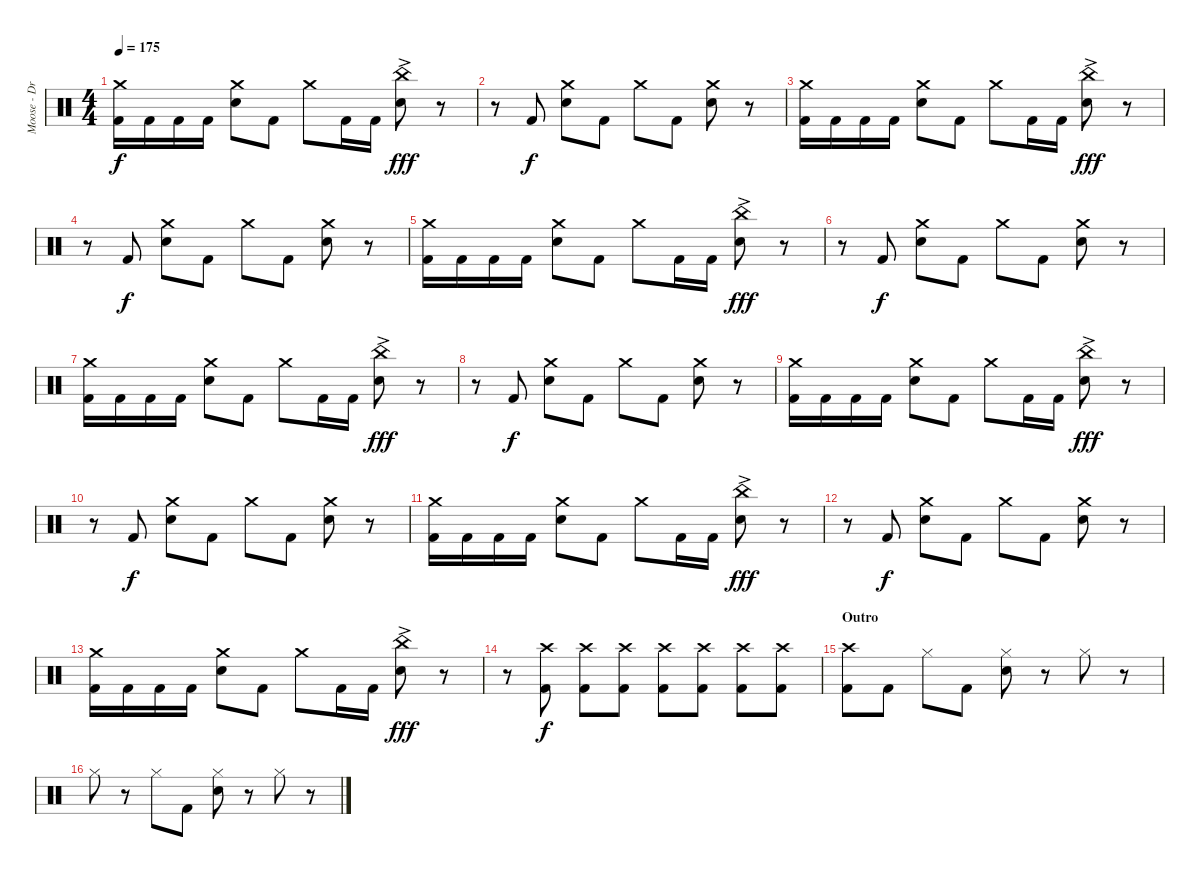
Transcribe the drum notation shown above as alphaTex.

\track ("Moose - Drums" "Moose - Dr") {instrument percussion}
\staff {score}
\articulation defaults
\ts (4 4)
\tempo 175
\clef neutral
\ks c
("Crash medium (hit)" "Kick (hit) 2").16{dy f} "Kick (hit) 2".16 "Kick (hit) 2".16 "Kick (hit) 2".16 ("Crash medium (hit)" "Electric Snare (hit)").8 "Kick (hit) 2".8 "Crash medium (hit)".8 "Kick (hit) 2".16 "Kick (hit) 2".16 ("China (hit)"{ac} "Electric Snare (hit)").8{dy fff} r.8 |
r.8 "Kick (hit) 2".8{dy f} ("Crash medium (hit)" "Electric Snare (hit)").8 "Kick (hit) 2".8 "Crash medium (hit)".8 "Kick (hit) 2".8 ("Crash medium (hit)" "Electric Snare (hit)").8 r.8 |
("Crash medium (hit)" "Kick (hit) 2").16 "Kick (hit) 2".16 "Kick (hit) 2".16 "Kick (hit) 2".16 ("Crash medium (hit)" "Electric Snare (hit)").8 "Kick (hit) 2".8 "Crash medium (hit)".8 "Kick (hit) 2".16 "Kick (hit) 2".16 ("China (hit)"{ac} "Electric Snare (hit)").8{dy fff} r.8 |
r.8 "Kick (hit) 2".8{dy f} ("Crash medium (hit)" "Electric Snare (hit)").8 "Kick (hit) 2".8 "Crash medium (hit)".8 "Kick (hit) 2".8 ("Crash medium (hit)" "Electric Snare (hit)").8 r.8 |
("Crash medium (hit)" "Kick (hit) 2").16 "Kick (hit) 2".16 "Kick (hit) 2".16 "Kick (hit) 2".16 ("Crash medium (hit)" "Electric Snare (hit)").8 "Kick (hit) 2".8 "Crash medium (hit)".8 "Kick (hit) 2".16 "Kick (hit) 2".16 ("China (hit)"{ac} "Electric Snare (hit)").8{dy fff} r.8 |
r.8 "Kick (hit) 2".8{dy f} ("Crash medium (hit)" "Electric Snare (hit)").8 "Kick (hit) 2".8 "Crash medium (hit)".8 "Kick (hit) 2".8 ("Crash medium (hit)" "Electric Snare (hit)").8 r.8 |
("Crash medium (hit)" "Kick (hit) 2").16 "Kick (hit) 2".16 "Kick (hit) 2".16 "Kick (hit) 2".16 ("Crash medium (hit)" "Electric Snare (hit)").8 "Kick (hit) 2".8 "Crash medium (hit)".8 "Kick (hit) 2".16 "Kick (hit) 2".16 ("China (hit)"{ac} "Electric Snare (hit)").8{dy fff} r.8 |
r.8 "Kick (hit) 2".8{dy f} ("Crash medium (hit)" "Electric Snare (hit)").8 "Kick (hit) 2".8 "Crash medium (hit)".8 "Kick (hit) 2".8 ("Crash medium (hit)" "Electric Snare (hit)").8 r.8 |
("Crash medium (hit)" "Kick (hit) 2").16 "Kick (hit) 2".16 "Kick (hit) 2".16 "Kick (hit) 2".16 ("Crash medium (hit)" "Electric Snare (hit)").8 "Kick (hit) 2".8 "Crash medium (hit)".8 "Kick (hit) 2".16 "Kick (hit) 2".16 ("China (hit)"{ac} "Electric Snare (hit)").8{dy fff} r.8 |
r.8 "Kick (hit) 2".8{dy f} ("Crash medium (hit)" "Electric Snare (hit)").8 "Kick (hit) 2".8 "Crash medium (hit)".8 "Kick (hit) 2".8 ("Crash medium (hit)" "Electric Snare (hit)").8 r.8 |
("Crash medium (hit)" "Kick (hit) 2").16 "Kick (hit) 2".16 "Kick (hit) 2".16 "Kick (hit) 2".16 ("Crash medium (hit)" "Electric Snare (hit)").8 "Kick (hit) 2".8 "Crash medium (hit)".8 "Kick (hit) 2".16 "Kick (hit) 2".16 ("China (hit)"{ac} "Electric Snare (hit)").8{dy fff} r.8 |
r.8 "Kick (hit) 2".8{dy f} ("Crash medium (hit)" "Electric Snare (hit)").8 "Kick (hit) 2".8 "Crash medium (hit)".8 "Kick (hit) 2".8 ("Crash medium (hit)" "Electric Snare (hit)").8 r.8 |
("Crash medium (hit)" "Kick (hit) 2").16 "Kick (hit) 2".16 "Kick (hit) 2".16 "Kick (hit) 2".16 ("Crash medium (hit)" "Electric Snare (hit)").8 "Kick (hit) 2".8 "Crash medium (hit)".8 "Kick (hit) 2".16 "Kick (hit) 2".16 ("China (hit)"{ac} "Electric Snare (hit)").8{dy fff} r.8 |
r.8 ("Crash high (hit)" "Kick (hit) 2").8{dy f} ("Crash high (hit)" "Kick (hit) 2").8 ("Crash high (hit)" "Kick (hit) 2").8 ("Crash high (hit)" "Kick (hit) 2").8 ("Crash high (hit)" "Kick (hit) 2").8 ("Crash high (hit)" "Kick (hit) 2").8 ("Crash high (hit)" "Kick (hit) 2").8 |
\section ("" "Outro")
("Crash high (hit)" "Kick (hit) 2").8 "Kick (hit) 2".8 "Hi-Hat (closed)".8 "Kick (hit) 2".8 ("Hi-Hat (closed)" "Electric Snare (hit)").8 r.8 "Hi-Hat (closed)".8 r.8 |
"Hi-Hat (closed)".8 r.8 "Hi-Hat (closed)".8 "Kick (hit) 2".8 ("Hi-Hat (closed)" "Electric Snare (hit)").8 r.8 "Hi-Hat (closed)".8 r.8
